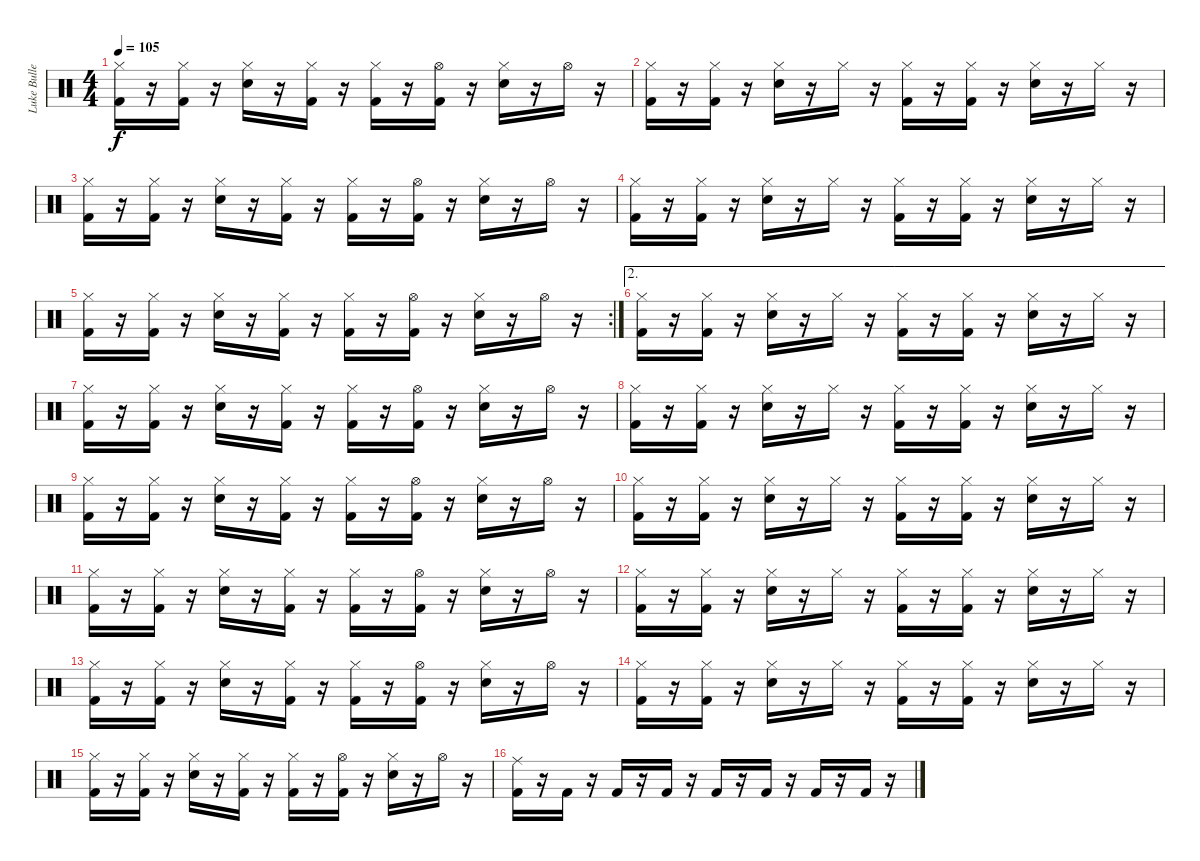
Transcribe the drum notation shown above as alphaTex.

\track ("Luke Bullen" "Luke Bulle") {instrument percussion}
\staff {score}
\articulation defaults
\ts (4 4)
\tempo 105
\clef neutral
\ks c
("Hi-Hat (closed)" "Kick (hit) 2").16{dy f} r.16 ("Hi-Hat (closed)" "Kick (hit) 2").16 r.16 ("Hi-Hat (closed)" "Electric Snare (hit)").16 r.16 ("Hi-Hat (closed)" "Kick (hit) 2").16 r.16 ("Hi-Hat (closed)" "Kick (hit) 2").16 r.16 ("Hi-Hat (open)" "Kick (hit) 2").16 r.16 ("Hi-Hat (closed)" "Electric Snare (hit)").16 r.16 "Hi-Hat (open)".16 r.16 |
("Hi-Hat (closed)" "Kick (hit) 2").16 r.16 ("Hi-Hat (closed)" "Kick (hit) 2").16 r.16 ("Hi-Hat (closed)" "Electric Snare (hit)").16 r.16 "Hi-Hat (closed)".16 r.16 ("Hi-Hat (closed)" "Kick (hit) 2").16 r.16 ("Hi-Hat (closed)" "Kick (hit) 2").16 r.16 ("Hi-Hat (closed)" "Electric Snare (hit)").16 r.16 "Hi-Hat (closed)".16 r.16 |
("Hi-Hat (closed)" "Kick (hit) 2").16 r.16 ("Hi-Hat (closed)" "Kick (hit) 2").16 r.16 ("Hi-Hat (closed)" "Electric Snare (hit)").16 r.16 ("Hi-Hat (closed)" "Kick (hit) 2").16 r.16 ("Hi-Hat (closed)" "Kick (hit) 2").16 r.16 ("Hi-Hat (open)" "Kick (hit) 2").16 r.16 ("Hi-Hat (closed)" "Electric Snare (hit)").16 r.16 "Hi-Hat (open)".16 r.16 |
("Hi-Hat (closed)" "Kick (hit) 2").16 r.16 ("Hi-Hat (closed)" "Kick (hit) 2").16 r.16 ("Hi-Hat (closed)" "Electric Snare (hit)").16 r.16 "Hi-Hat (closed)".16 r.16 ("Hi-Hat (closed)" "Kick (hit) 2").16 r.16 ("Hi-Hat (closed)" "Kick (hit) 2").16 r.16 ("Hi-Hat (closed)" "Electric Snare (hit)").16 r.16 "Hi-Hat (closed)".16 r.16 |
\rc 2
("Hi-Hat (closed)" "Kick (hit) 2").16 r.16 ("Hi-Hat (closed)" "Kick (hit) 2").16 r.16 ("Hi-Hat (closed)" "Electric Snare (hit)").16 r.16 ("Hi-Hat (closed)" "Kick (hit) 2").16 r.16 ("Hi-Hat (closed)" "Kick (hit) 2").16 r.16 ("Hi-Hat (open)" "Kick (hit) 2").16 r.16 ("Hi-Hat (closed)" "Electric Snare (hit)").16 r.16 "Hi-Hat (open)".16 r.16 |
\ae 2
("Hi-Hat (closed)" "Kick (hit) 2").16 r.16 ("Hi-Hat (closed)" "Kick (hit) 2").16 r.16 ("Hi-Hat (closed)" "Electric Snare (hit)").16 r.16 "Hi-Hat (closed)".16 r.16 ("Hi-Hat (closed)" "Kick (hit) 2").16 r.16 ("Hi-Hat (closed)" "Kick (hit) 2").16 r.16 ("Hi-Hat (closed)" "Electric Snare (hit)").16 r.16 "Hi-Hat (closed)".16 r.16 |
("Hi-Hat (closed)" "Kick (hit) 2").16 r.16 ("Hi-Hat (closed)" "Kick (hit) 2").16 r.16 ("Hi-Hat (closed)" "Electric Snare (hit)").16 r.16 ("Hi-Hat (closed)" "Kick (hit) 2").16 r.16 ("Hi-Hat (closed)" "Kick (hit) 2").16 r.16 ("Hi-Hat (open)" "Kick (hit) 2").16 r.16 ("Hi-Hat (closed)" "Electric Snare (hit)").16 r.16 "Hi-Hat (open)".16 r.16 |
("Hi-Hat (closed)" "Kick (hit) 2").16 r.16 ("Hi-Hat (closed)" "Kick (hit) 2").16 r.16 ("Hi-Hat (closed)" "Electric Snare (hit)").16 r.16 "Hi-Hat (closed)".16 r.16 ("Hi-Hat (closed)" "Kick (hit) 2").16 r.16 ("Hi-Hat (closed)" "Kick (hit) 2").16 r.16 ("Hi-Hat (closed)" "Electric Snare (hit)").16 r.16 "Hi-Hat (closed)".16 r.16 |
("Hi-Hat (closed)" "Kick (hit) 2").16 r.16 ("Hi-Hat (closed)" "Kick (hit) 2").16 r.16 ("Hi-Hat (closed)" "Electric Snare (hit)").16 r.16 ("Hi-Hat (closed)" "Kick (hit) 2").16 r.16 ("Hi-Hat (closed)" "Kick (hit) 2").16 r.16 ("Hi-Hat (open)" "Kick (hit) 2").16 r.16 ("Hi-Hat (closed)" "Electric Snare (hit)").16 r.16 "Hi-Hat (open)".16 r.16 |
("Hi-Hat (closed)" "Kick (hit) 2").16 r.16 ("Hi-Hat (closed)" "Kick (hit) 2").16 r.16 ("Hi-Hat (closed)" "Electric Snare (hit)").16 r.16 "Hi-Hat (closed)".16 r.16 ("Hi-Hat (closed)" "Kick (hit) 2").16 r.16 ("Hi-Hat (closed)" "Kick (hit) 2").16 r.16 ("Hi-Hat (closed)" "Electric Snare (hit)").16 r.16 "Hi-Hat (closed)".16 r.16 |
("Hi-Hat (closed)" "Kick (hit) 2").16 r.16 ("Hi-Hat (closed)" "Kick (hit) 2").16 r.16 ("Hi-Hat (closed)" "Electric Snare (hit)").16 r.16 ("Hi-Hat (closed)" "Kick (hit) 2").16 r.16 ("Hi-Hat (closed)" "Kick (hit) 2").16 r.16 ("Hi-Hat (open)" "Kick (hit) 2").16 r.16 ("Hi-Hat (closed)" "Electric Snare (hit)").16 r.16 "Hi-Hat (open)".16 r.16 |
("Hi-Hat (closed)" "Kick (hit) 2").16 r.16 ("Hi-Hat (closed)" "Kick (hit) 2").16 r.16 ("Hi-Hat (closed)" "Electric Snare (hit)").16 r.16 "Hi-Hat (closed)".16 r.16 ("Hi-Hat (closed)" "Kick (hit) 2").16 r.16 ("Hi-Hat (closed)" "Kick (hit) 2").16 r.16 ("Hi-Hat (closed)" "Electric Snare (hit)").16 r.16 "Hi-Hat (closed)".16 r.16 |
("Hi-Hat (closed)" "Kick (hit) 2").16 r.16 ("Hi-Hat (closed)" "Kick (hit) 2").16 r.16 ("Hi-Hat (closed)" "Electric Snare (hit)").16 r.16 ("Hi-Hat (closed)" "Kick (hit) 2").16 r.16 ("Hi-Hat (closed)" "Kick (hit) 2").16 r.16 ("Hi-Hat (open)" "Kick (hit) 2").16 r.16 ("Hi-Hat (closed)" "Electric Snare (hit)").16 r.16 "Hi-Hat (open)".16 r.16 |
("Hi-Hat (closed)" "Kick (hit) 2").16 r.16 ("Hi-Hat (closed)" "Kick (hit) 2").16 r.16 ("Hi-Hat (closed)" "Electric Snare (hit)").16 r.16 "Hi-Hat (closed)".16 r.16 ("Hi-Hat (closed)" "Kick (hit) 2").16 r.16 ("Hi-Hat (closed)" "Kick (hit) 2").16 r.16 ("Hi-Hat (closed)" "Electric Snare (hit)").16 r.16 "Hi-Hat (closed)".16 r.16 |
("Hi-Hat (closed)" "Kick (hit) 2").16 r.16 ("Hi-Hat (closed)" "Kick (hit) 2").16 r.16 ("Hi-Hat (closed)" "Electric Snare (hit)").16 r.16 ("Hi-Hat (closed)" "Kick (hit) 2").16 r.16 ("Hi-Hat (closed)" "Kick (hit) 2").16 r.16 ("Hi-Hat (open)" "Kick (hit) 2").16 r.16 ("Hi-Hat (closed)" "Electric Snare (hit)").16 r.16 "Hi-Hat (open)".16 r.16 |
("Ride (middle)" "Kick (hit) 2").16 r.16 "Kick (hit) 2".16 r.16 "Kick (hit) 2".16 r.16 "Kick (hit) 2".16 r.16 "Kick (hit) 2".16 r.16 "Kick (hit) 2".16 r.16 "Kick (hit) 2".16 r.16 "Kick (hit) 2".16 r.16
